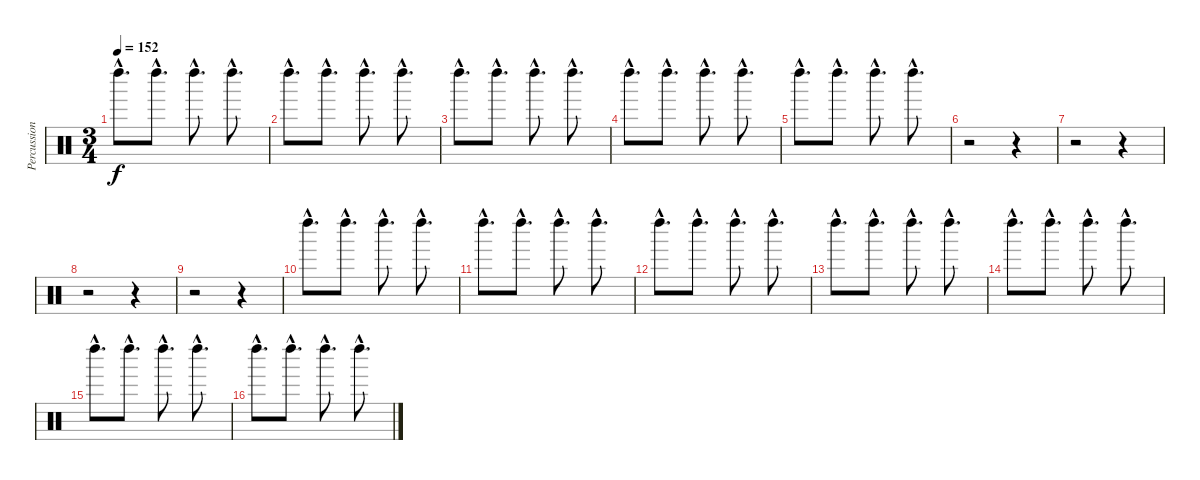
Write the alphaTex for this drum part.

\track ("Percussion" "Percussion") {instrument percussion}
\staff {score}
\articulation defaults
\ts (3 4)
\tempo 152
\clef neutral
\ks c "Left Maraca (hit)"{hac}.8{d dy f} "Left Maraca (hit)"{hac}.8{d} "Left Maraca (hit)"{hac}.8{d} "Left Maraca (hit)"{hac}.8{d}
|
"Left Maraca (hit)"{hac}.8{d} "Left Maraca (hit)"{hac}.8{d} "Left Maraca (hit)"{hac}.8{d} "Left Maraca (hit)"{hac}.8{d} |
"Left Maraca (hit)"{hac}.8{d} "Left Maraca (hit)"{hac}.8{d} "Left Maraca (hit)"{hac}.8{d} "Left Maraca (hit)"{hac}.8{d} |
"Left Maraca (hit)"{hac}.8{d} "Left Maraca (hit)"{hac}.8{d} "Left Maraca (hit)"{hac}.8{d} "Left Maraca (hit)"{hac}.8{d} |
"Left Maraca (hit)"{hac}.8{d} "Left Maraca (hit)"{hac}.8{d} "Left Maraca (hit)"{hac}.8{d} "Left Maraca (hit)"{hac}.8{d} |
r.2 r.4 |
r.2 r.4 |
r.2 r.4 |
r.2 r.4 |
"Left Maraca (hit)"{hac}.8{d} "Left Maraca (hit)"{hac}.8{d} "Left Maraca (hit)"{hac}.8{d} "Left Maraca (hit)"{hac}.8{d} |
"Left Maraca (hit)"{hac}.8{d} "Left Maraca (hit)"{hac}.8{d} "Left Maraca (hit)"{hac}.8{d} "Left Maraca (hit)"{hac}.8{d} |
"Left Maraca (hit)"{hac}.8{d} "Left Maraca (hit)"{hac}.8{d} "Left Maraca (hit)"{hac}.8{d} "Left Maraca (hit)"{hac}.8{d} |
"Left Maraca (hit)"{hac}.8{d} "Left Maraca (hit)"{hac}.8{d} "Left Maraca (hit)"{hac}.8{d} "Left Maraca (hit)"{hac}.8{d} |
"Left Maraca (hit)"{hac}.8{d} "Left Maraca (hit)"{hac}.8{d} "Left Maraca (hit)"{hac}.8{d} "Left Maraca (hit)"{hac}.8{d} |
"Left Maraca (hit)"{hac}.8{d} "Left Maraca (hit)"{hac}.8{d} "Left Maraca (hit)"{hac}.8{d} "Left Maraca (hit)"{hac}.8{d} |
"Left Maraca (hit)"{hac}.8{d} "Left Maraca (hit)"{hac}.8{d} "Left Maraca (hit)"{hac}.8{d} "Left Maraca (hit)"{hac}.8{d}
